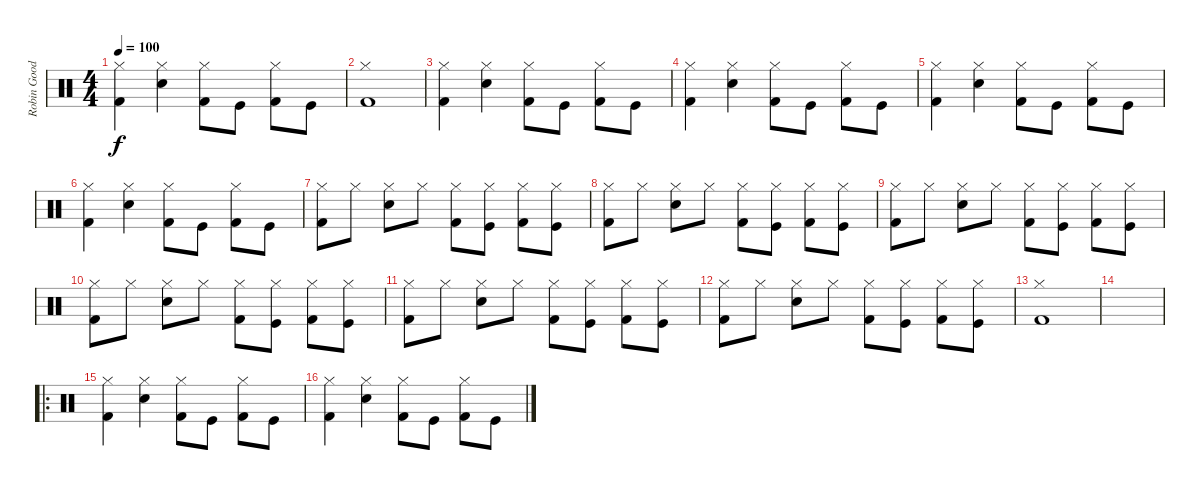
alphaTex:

\track ("Robin Goodridge - Drums " "Robin Good") {instrument percussion}
\staff {score}
\articulation defaults
\ts (4 4)
\tempo 100
\clef neutral
\ks c
("Hi-Hat (closed)" "Kick (hit) 2").4{dy f} ("Hi-Hat (closed)" "Snare (hit) 2").4 ("Hi-Hat (closed)" "Kick (hit) 2").8 "Kick (hit)".8 ("Hi-Hat (closed)" "Kick (hit) 2").8 "Kick (hit)".8 |
("Hi-Hat (closed)" "Kick (hit) 2").1 |
("Hi-Hat (closed)" "Kick (hit) 2").4 ("Hi-Hat (closed)" "Snare (hit) 2").4 ("Hi-Hat (closed)" "Kick (hit) 2").8 "Kick (hit)".8 ("Hi-Hat (closed)" "Kick (hit) 2").8 "Kick (hit)".8 |
("Hi-Hat (closed)" "Kick (hit) 2").4 ("Hi-Hat (closed)" "Snare (hit) 2").4 ("Hi-Hat (closed)" "Kick (hit) 2").8 "Kick (hit)".8 ("Hi-Hat (closed)" "Kick (hit) 2").8 "Kick (hit)".8 |
("Hi-Hat (closed)" "Kick (hit) 2").4 ("Hi-Hat (closed)" "Snare (hit) 2").4 ("Hi-Hat (closed)" "Kick (hit) 2").8 "Kick (hit)".8 ("Hi-Hat (closed)" "Kick (hit) 2").8 "Kick (hit)".8 |
("Hi-Hat (closed)" "Kick (hit) 2").4 ("Hi-Hat (closed)" "Snare (hit) 2").4 ("Hi-Hat (closed)" "Kick (hit) 2").8 "Kick (hit)".8 ("Hi-Hat (closed)" "Kick (hit) 2").8 "Kick (hit)".8 |
("Hi-Hat (closed)" "Kick (hit) 2").8 "Hi-Hat (closed)".8 ("Hi-Hat (closed)" "Snare (hit) 2").8 "Hi-Hat (closed)".8 ("Hi-Hat (closed)" "Kick (hit) 2").8 ("Hi-Hat (closed)" "Kick (hit)").8 ("Hi-Hat (closed)" "Kick (hit) 2").8 ("Hi-Hat (closed)" "Kick (hit)").8 |
("Hi-Hat (closed)" "Kick (hit) 2").8 "Hi-Hat (closed)".8 ("Hi-Hat (closed)" "Snare (hit) 2").8 "Hi-Hat (closed)".8 ("Hi-Hat (closed)" "Kick (hit) 2").8 ("Hi-Hat (closed)" "Kick (hit)").8 ("Hi-Hat (closed)" "Kick (hit) 2").8 ("Hi-Hat (closed)" "Kick (hit)").8 |
("Hi-Hat (closed)" "Kick (hit) 2").8 "Hi-Hat (closed)".8 ("Hi-Hat (closed)" "Snare (hit) 2").8 "Hi-Hat (closed)".8 ("Hi-Hat (closed)" "Kick (hit) 2").8 ("Hi-Hat (closed)" "Kick (hit)").8 ("Hi-Hat (closed)" "Kick (hit) 2").8 ("Hi-Hat (closed)" "Kick (hit)").8 |
("Hi-Hat (closed)" "Kick (hit) 2").8 "Hi-Hat (closed)".8 ("Hi-Hat (closed)" "Snare (hit) 2").8 "Hi-Hat (closed)".8 ("Hi-Hat (closed)" "Kick (hit) 2").8 ("Hi-Hat (closed)" "Kick (hit)").8 ("Hi-Hat (closed)" "Kick (hit) 2").8 ("Hi-Hat (closed)" "Kick (hit)").8 |
("Hi-Hat (closed)" "Kick (hit) 2").8 "Hi-Hat (closed)".8 ("Hi-Hat (closed)" "Snare (hit) 2").8 "Hi-Hat (closed)".8 ("Hi-Hat (closed)" "Kick (hit) 2").8 ("Hi-Hat (closed)" "Kick (hit)").8 ("Hi-Hat (closed)" "Kick (hit) 2").8 ("Hi-Hat (closed)" "Kick (hit)").8 |
("Hi-Hat (closed)" "Kick (hit) 2").8 "Hi-Hat (closed)".8 ("Hi-Hat (closed)" "Snare (hit) 2").8 "Hi-Hat (closed)".8 ("Hi-Hat (closed)" "Kick (hit) 2").8 ("Hi-Hat (closed)" "Kick (hit)").8 ("Hi-Hat (closed)" "Kick (hit) 2").8 ("Hi-Hat (closed)" "Kick (hit)").8 |
("Hi-Hat (closed)" "Kick (hit) 2").1 |
|
\ro
("Hi-Hat (closed)" "Kick (hit) 2").4 ("Hi-Hat (closed)" "Snare (hit) 2").4 ("Hi-Hat (closed)" "Kick (hit) 2").8 "Kick (hit)".8 ("Hi-Hat (closed)" "Kick (hit) 2").8 "Kick (hit)".8 |
("Hi-Hat (closed)" "Kick (hit) 2").4 ("Hi-Hat (closed)" "Snare (hit) 2").4 ("Hi-Hat (closed)" "Kick (hit) 2").8 "Kick (hit)".8 ("Hi-Hat (closed)" "Kick (hit) 2").8 "Kick (hit)".8
